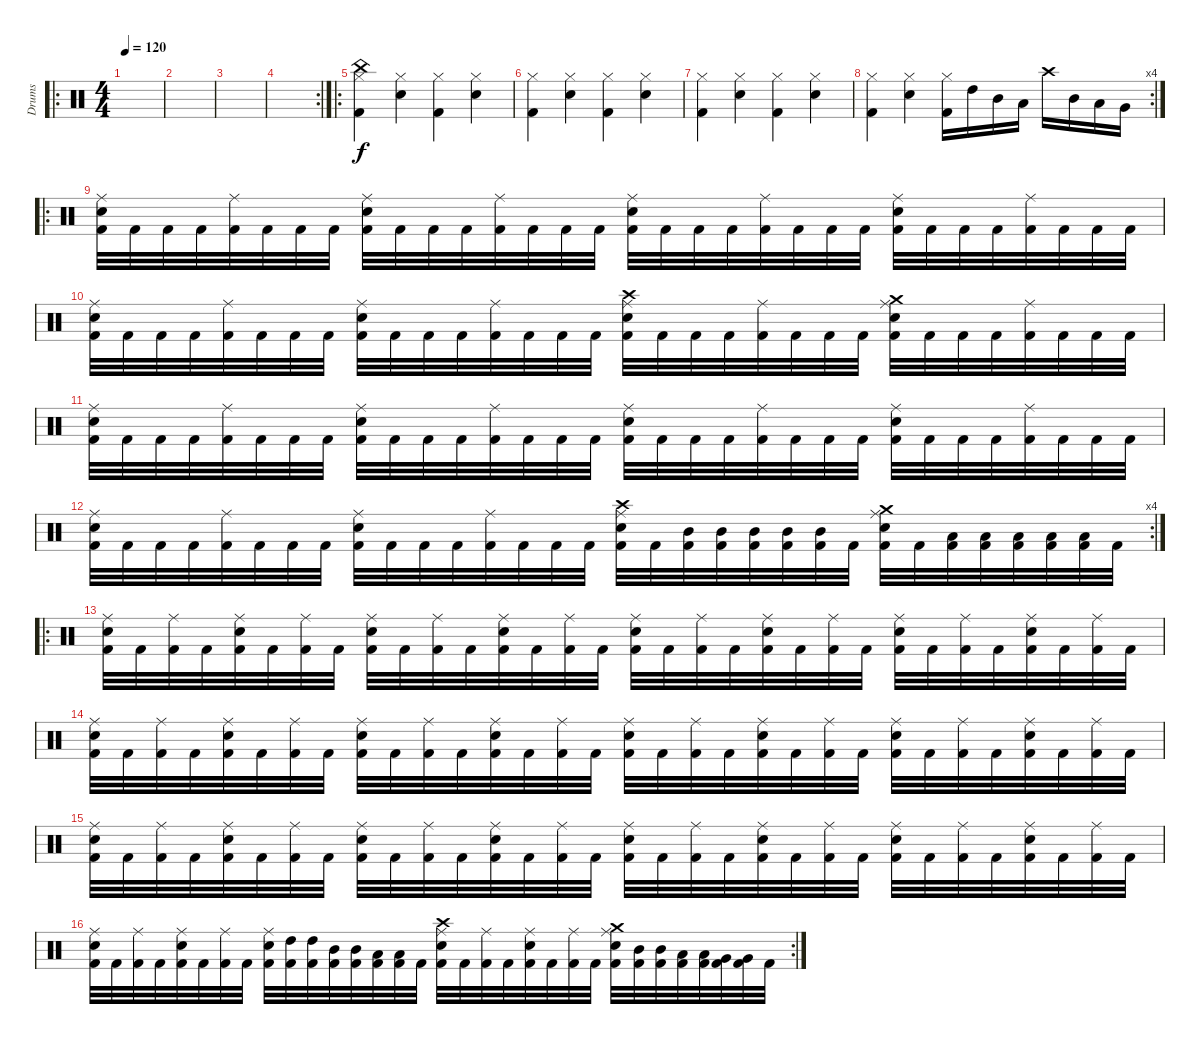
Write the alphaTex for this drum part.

\track ("Drums" "Drums") {instrument percussion}
\staff {score}
\articulation defaults
\ro
\ts (4 4)
\tempo 120
\clef neutral
\ks c
|
|
|
\rc 2
|
\ro
("China (hit)" "Hi-Hat (closed)" "Kick (hit) 2").4 ("Hi-Hat (closed)" "Snare (hit) 2").4 ("Hi-Hat (closed)" "Kick (hit) 2").4 ("Hi-Hat (closed)" "Snare (hit) 2").4 |
("Hi-Hat (closed)" "Kick (hit) 2").4 ("Hi-Hat (closed)" "Snare (hit) 2").4 ("Hi-Hat (closed)" "Kick (hit) 2").4 ("Hi-Hat (closed)" "Snare (hit) 2").4 |
("Hi-Hat (closed)" "Kick (hit) 2").4 ("Hi-Hat (closed)" "Snare (hit) 2").4 ("Hi-Hat (closed)" "Kick (hit) 2").4 ("Hi-Hat (closed)" "Snare (hit) 2").4 |
\rc 4
("Hi-Hat (closed)" "Kick (hit) 2").4 ("Hi-Hat (closed)" "Snare (hit) 2").4 ("Hi-Hat (closed)" "Kick (hit) 2").16 "High Tom (hit)".16 "Mid Tom (hit)".16 "Low Tom (hit)".16 "Crash high (hit)".16 "Mid Tom (hit)".16 "Low Tom (hit)".16 "Very Low Tom (hit)".16 |
\ro
("Ride (middle)" "Snare (hit) 2" "Kick (hit) 2").32 "Kick (hit) 2".32 "Kick (hit) 2".32 "Kick (hit) 2".32 ("Ride (middle)" "Kick (hit) 2").32 "Kick (hit) 2".32 "Kick (hit) 2".32 "Kick (hit) 2".32 ("Ride (middle)" "Snare (hit) 2" "Kick (hit) 2").32 "Kick (hit) 2".32 "Kick (hit) 2".32 "Kick (hit) 2".32 ("Ride (middle)" "Kick (hit) 2").32 "Kick (hit) 2".32 "Kick (hit) 2".32 "Kick (hit) 2".32 ("Ride (middle)" "Snare (hit) 2" "Kick (hit) 2").32 "Kick (hit) 2".32 "Kick (hit) 2".32 "Kick (hit) 2".32 ("Ride (middle)" "Kick (hit) 2").32 "Kick (hit) 2".32 "Kick (hit) 2".32 "Kick (hit) 2".32 ("Ride (middle)" "Snare (hit) 2" "Kick (hit) 2").32 "Kick (hit) 2".32 "Kick (hit) 2".32 "Kick (hit) 2".32 ("Ride (middle)" "Kick (hit) 2").32 "Kick (hit) 2".32 "Kick (hit) 2".32 "Kick (hit) 2".32 |
("Ride (middle)" "Snare (hit) 2" "Kick (hit) 2").32 "Kick (hit) 2".32 "Kick (hit) 2".32 "Kick (hit) 2".32 ("Ride (middle)" "Kick (hit) 2").32 "Kick (hit) 2".32 "Kick (hit) 2".32 "Kick (hit) 2".32 ("Ride (middle)" "Snare (hit) 2" "Kick (hit) 2").32 "Kick (hit) 2".32 "Kick (hit) 2".32 "Kick (hit) 2".32 ("Ride (middle)" "Kick (hit) 2").32 "Kick (hit) 2".32 "Kick (hit) 2".32 "Kick (hit) 2".32 ("Crash high (hit)" "Ride (middle)" "Snare (hit) 2" "Kick (hit) 2").32 "Kick (hit) 2".32 "Kick (hit) 2".32 "Kick (hit) 2".32 ("Ride (middle)" "Kick (hit) 2").32 "Kick (hit) 2".32 "Kick (hit) 2".32 "Kick (hit) 2".32 ("Crash medium (hit)" "Ride (middle)" "Snare (hit) 2" "Kick (hit) 2").32 "Kick (hit) 2".32 "Kick (hit) 2".32 "Kick (hit) 2".32 ("Ride (middle)" "Kick (hit) 2").32 "Kick (hit) 2".32 "Kick (hit) 2".32 "Kick (hit) 2".32 |
("Ride (middle)" "Snare (hit) 2" "Kick (hit) 2").32 "Kick (hit) 2".32 "Kick (hit) 2".32 "Kick (hit) 2".32 ("Ride (middle)" "Kick (hit) 2").32 "Kick (hit) 2".32 "Kick (hit) 2".32 "Kick (hit) 2".32 ("Ride (middle)" "Snare (hit) 2" "Kick (hit) 2").32 "Kick (hit) 2".32 "Kick (hit) 2".32 "Kick (hit) 2".32 ("Ride (middle)" "Kick (hit) 2").32 "Kick (hit) 2".32 "Kick (hit) 2".32 "Kick (hit) 2".32 ("Ride (middle)" "Snare (hit) 2" "Kick (hit) 2").32 "Kick (hit) 2".32 "Kick (hit) 2".32 "Kick (hit) 2".32 ("Ride (middle)" "Kick (hit) 2").32 "Kick (hit) 2".32 "Kick (hit) 2".32 "Kick (hit) 2".32 ("Ride (middle)" "Snare (hit) 2" "Kick (hit) 2").32 "Kick (hit) 2".32 "Kick (hit) 2".32 "Kick (hit) 2".32 ("Ride (middle)" "Kick (hit) 2").32 "Kick (hit) 2".32 "Kick (hit) 2".32 "Kick (hit) 2".32 |
\rc 4
("Ride (middle)" "Snare (hit) 2" "Kick (hit) 2").32 "Kick (hit) 2".32 "Kick (hit) 2".32 "Kick (hit) 2".32 ("Ride (middle)" "Kick (hit) 2").32 "Kick (hit) 2".32 "Kick (hit) 2".32 "Kick (hit) 2".32 ("Ride (middle)" "Snare (hit) 2" "Kick (hit) 2").32 "Kick (hit) 2".32 "Kick (hit) 2".32 "Kick (hit) 2".32 ("Ride (middle)" "Kick (hit) 2").32 "Kick (hit) 2".32 "Kick (hit) 2".32 "Kick (hit) 2".32 ("Crash high (hit)" "Ride (middle)" "Snare (hit) 2" "Kick (hit) 2").32 "Kick (hit) 2".32 ("Mid Tom (hit)" "Kick (hit) 2").32 ("Mid Tom (hit)" "Kick (hit) 2").32 ("Mid Tom (hit)" "Kick (hit) 2").32 ("Mid Tom (hit)" "Kick (hit) 2").32 ("Mid Tom (hit)" "Kick (hit) 2").32 "Kick (hit) 2".32 ("Crash medium (hit)" "Ride (middle)" "Snare (hit) 2" "Kick (hit) 2").32 "Kick (hit) 2".32 ("Low Tom (hit)" "Kick (hit) 2").32 ("Low Tom (hit)" "Kick (hit) 2").32 ("Low Tom (hit)" "Kick (hit) 2").32 ("Low Tom (hit)" "Kick (hit) 2").32 ("Low Tom (hit)" "Kick (hit) 2").32 "Kick (hit) 2".32 |
\ro
("Ride (middle)" "Snare (hit) 2" "Kick (hit) 2").32 "Kick (hit) 2".32 ("Ride (middle)" "Kick (hit) 2").32 "Kick (hit) 2".32 ("Ride (middle)" "Snare (hit) 2" "Kick (hit) 2").32 "Kick (hit) 2".32 ("Ride (middle)" "Kick (hit) 2").32 "Kick (hit) 2".32 ("Ride (middle)" "Snare (hit) 2" "Kick (hit) 2").32 "Kick (hit) 2".32 ("Ride (middle)" "Kick (hit) 2").32 "Kick (hit) 2".32 ("Ride (middle)" "Snare (hit) 2" "Kick (hit) 2").32 "Kick (hit) 2".32 ("Ride (middle)" "Kick (hit) 2").32 "Kick (hit) 2".32 ("Ride (middle)" "Snare (hit) 2" "Kick (hit) 2").32 "Kick (hit) 2".32 ("Ride (middle)" "Kick (hit) 2").32 "Kick (hit) 2".32 ("Ride (middle)" "Snare (hit) 2" "Kick (hit) 2").32 "Kick (hit) 2".32 ("Ride (middle)" "Kick (hit) 2").32 "Kick (hit) 2".32 ("Ride (middle)" "Snare (hit) 2" "Kick (hit) 2").32 "Kick (hit) 2".32 ("Ride (middle)" "Kick (hit) 2").32 "Kick (hit) 2".32 ("Ride (middle)" "Snare (hit) 2" "Kick (hit) 2").32 "Kick (hit) 2".32 ("Ride (middle)" "Kick (hit) 2").32 "Kick (hit) 2".32 |
("Ride (middle)" "Snare (hit) 2" "Kick (hit) 2").32 "Kick (hit) 2".32 ("Ride (middle)" "Kick (hit) 2").32 "Kick (hit) 2".32 ("Ride (middle)" "Snare (hit) 2" "Kick (hit) 2").32 "Kick (hit) 2".32 ("Ride (middle)" "Kick (hit) 2").32 "Kick (hit) 2".32 ("Ride (middle)" "Snare (hit) 2" "Kick (hit) 2").32 "Kick (hit) 2".32 ("Ride (middle)" "Kick (hit) 2").32 "Kick (hit) 2".32 ("Ride (middle)" "Snare (hit) 2" "Kick (hit) 2").32 "Kick (hit) 2".32 ("Ride (middle)" "Kick (hit) 2").32 "Kick (hit) 2".32 ("Ride (middle)" "Snare (hit) 2" "Kick (hit) 2").32 "Kick (hit) 2".32 ("Ride (middle)" "Kick (hit) 2").32 "Kick (hit) 2".32 ("Ride (middle)" "Snare (hit) 2" "Kick (hit) 2").32 "Kick (hit) 2".32 ("Ride (middle)" "Kick (hit) 2").32 "Kick (hit) 2".32 ("Ride (middle)" "Snare (hit) 2" "Kick (hit) 2").32 "Kick (hit) 2".32 ("Ride (middle)" "Kick (hit) 2").32 "Kick (hit) 2".32 ("Ride (middle)" "Snare (hit) 2" "Kick (hit) 2").32 "Kick (hit) 2".32 ("Ride (middle)" "Kick (hit) 2").32 "Kick (hit) 2".32 |
("Ride (middle)" "Snare (hit) 2" "Kick (hit) 2").32 "Kick (hit) 2".32 ("Ride (middle)" "Kick (hit) 2").32 "Kick (hit) 2".32 ("Ride (middle)" "Snare (hit) 2" "Kick (hit) 2").32 "Kick (hit) 2".32 ("Ride (middle)" "Kick (hit) 2").32 "Kick (hit) 2".32 ("Ride (middle)" "Snare (hit) 2" "Kick (hit) 2").32 "Kick (hit) 2".32 ("Ride (middle)" "Kick (hit) 2").32 "Kick (hit) 2".32 ("Ride (middle)" "Snare (hit) 2" "Kick (hit) 2").32 "Kick (hit) 2".32 ("Ride (middle)" "Kick (hit) 2").32 "Kick (hit) 2".32 ("Ride (middle)" "Snare (hit) 2" "Kick (hit) 2").32 "Kick (hit) 2".32 ("Ride (middle)" "Kick (hit) 2").32 "Kick (hit) 2".32 ("Ride (middle)" "Snare (hit) 2" "Kick (hit) 2").32 "Kick (hit) 2".32 ("Ride (middle)" "Kick (hit) 2").32 "Kick (hit) 2".32 ("Ride (middle)" "Snare (hit) 2" "Kick (hit) 2").32 "Kick (hit) 2".32 ("Ride (middle)" "Kick (hit) 2").32 "Kick (hit) 2".32 ("Ride (middle)" "Snare (hit) 2" "Kick (hit) 2").32 "Kick (hit) 2".32 ("Ride (middle)" "Kick (hit) 2").32 "Kick (hit) 2".32 |
\rc 2
("Ride (middle)" "Snare (hit) 2" "Kick (hit) 2").32 "Kick (hit) 2".32 ("Ride (middle)" "Kick (hit) 2").32 "Kick (hit) 2".32 ("Ride (middle)" "Snare (hit) 2" "Kick (hit) 2").32 "Kick (hit) 2".32 ("Ride (middle)" "Kick (hit) 2").32 "Kick (hit) 2".32 ("Ride (middle)" "Snare (hit) 2" "Kick (hit) 2").32 ("High Tom (hit)" "Kick (hit) 2").32 ("High Tom (hit)" "Kick (hit) 2").32 ("Mid Tom (hit)" "Kick (hit) 2").32 ("Mid Tom (hit)" "Kick (hit) 2").32 ("Low Tom (hit)" "Kick (hit) 2").32 ("Low Tom (hit)" "Kick (hit) 2").32 "Kick (hit) 2".32 ("Crash high (hit)" "Ride (middle)" "Snare (hit) 2" "Kick (hit) 2").32 "Kick (hit) 2".32 ("Ride (middle)" "Kick (hit) 2").32 "Kick (hit) 2".32 ("Ride (middle)" "Snare (hit) 2" "Kick (hit) 2").32 "Kick (hit) 2".32 ("Ride (middle)" "Kick (hit) 2").32 "Kick (hit) 2".32 ("Crash medium (hit)" "Ride (middle)" "Snare (hit) 2" "Kick (hit) 2").32 ("Mid Tom (hit)" "Kick (hit) 2").32 ("Mid Tom (hit)" "Kick (hit) 2").32 ("Low Tom (hit)" "Kick (hit) 2").32 ("Low Tom (hit)" "Kick (hit) 2").32 ("Very Low Tom (hit)" "Kick (hit) 2").32 ("Very Low Tom (hit)" "Kick (hit) 2").32 "Kick (hit) 2".32
